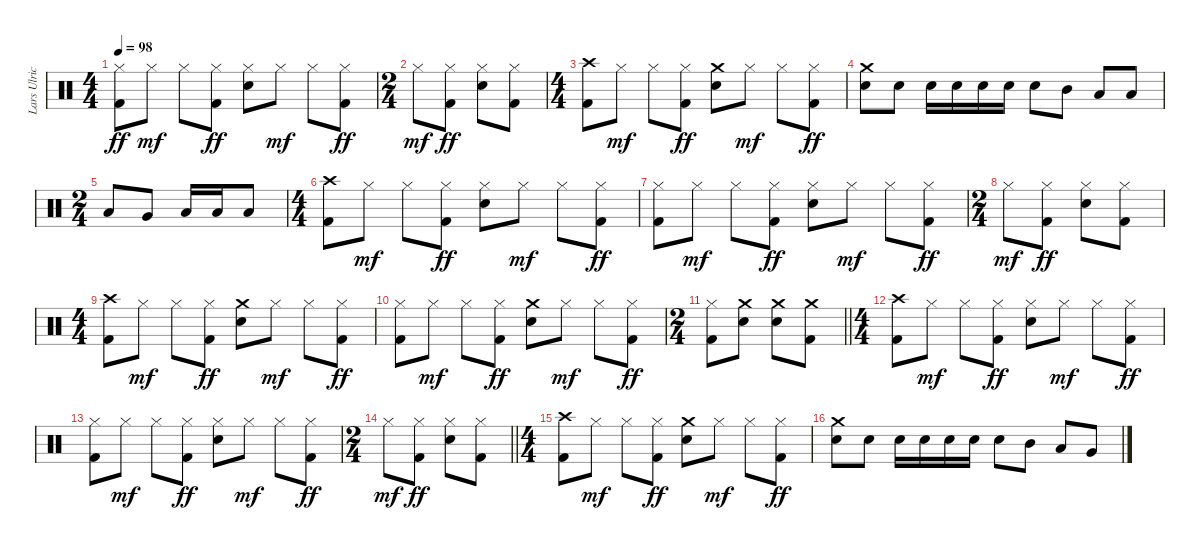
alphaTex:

\track ("Lars Ulrich" "Lars Ulric") {instrument percussion}
\staff {score}
\articulation defaults
\ts (4 4)
\tempo 98
\clef neutral
\ks c
("Hi-Hat (closed)" "Kick (hit) 2").8{dy ff} "Hi-Hat (closed)".8{dy mf} "Hi-Hat (closed)".8 ("Hi-Hat (closed)" "Kick (hit) 2").8{dy ff} ("Hi-Hat (closed)" "Snare (hit) 2").8 "Hi-Hat (closed)".8{dy mf} "Hi-Hat (closed)".8 ("Hi-Hat (closed)" "Kick (hit) 2").8{dy ff} |
\ts (2 4)
"Hi-Hat (closed)".8{dy mf} ("Hi-Hat (closed)" "Kick (hit) 2").8{dy ff} ("Hi-Hat (closed)" "Snare (hit) 2").8 ("Hi-Hat (closed)" "Kick (hit) 2").8 |
\ts (4 4)
("Crash high (hit)" "Kick (hit) 2").8 "Hi-Hat (closed)".8{dy mf} "Hi-Hat (closed)".8 ("Hi-Hat (closed)" "Kick (hit) 2").8{dy ff} ("Crash medium (hit)" "Snare (hit) 2").8 "Hi-Hat (closed)".8{dy mf} "Hi-Hat (closed)".8 ("Hi-Hat (closed)" "Kick (hit) 2").8{dy ff} |
("Crash medium (hit)" "Snare (hit) 2").8 "Snare (hit) 2".8 "Snare (hit) 2".16 "Snare (hit) 2".16 "Snare (hit) 2".16 "Snare (hit) 2".16 "Snare (hit) 2".8 "Mid Tom (hit)".8 "Low Tom (hit)".8 "Low Floor Tom (hit)".8 |
\ts (2 4)
"Low Tom (hit)".8 "Very Low Tom (hit)".8 "Low Floor Tom (hit)".16 "Low Floor Tom (hit)".16 "Low Floor Tom (hit)".8 |
\ts (4 4)
("Crash high (hit)" "Kick (hit) 2").8 "Hi-Hat (closed)".8{dy mf} "Hi-Hat (closed)".8 ("Hi-Hat (closed)" "Kick (hit) 2").8{dy ff} ("Hi-Hat (closed)" "Snare (hit) 2").8 "Hi-Hat (closed)".8{dy mf} "Hi-Hat (closed)".8 ("Hi-Hat (closed)" "Kick (hit) 2").8{dy ff} |
("Hi-Hat (closed)" "Kick (hit) 2").8 "Hi-Hat (closed)".8{dy mf} "Hi-Hat (closed)".8 ("Hi-Hat (closed)" "Kick (hit) 2").8{dy ff} ("Hi-Hat (closed)" "Snare (hit) 2").8 "Hi-Hat (closed)".8{dy mf} "Hi-Hat (closed)".8 ("Hi-Hat (closed)" "Kick (hit) 2").8{dy ff} |
\ts (2 4)
"Hi-Hat (closed)".8{dy mf} ("Hi-Hat (closed)" "Kick (hit) 2").8{dy ff} ("Hi-Hat (closed)" "Snare (hit) 2").8 ("Hi-Hat (closed)" "Kick (hit) 2").8 |
\ts (4 4)
("Crash high (hit)" "Kick (hit) 2").8 "Hi-Hat (closed)".8{dy mf} "Hi-Hat (closed)".8 ("Hi-Hat (closed)" "Kick (hit) 2").8{dy ff} ("Crash medium (hit)" "Snare (hit) 2").8 "Hi-Hat (closed)".8{dy mf} "Hi-Hat (closed)".8 ("Hi-Hat (closed)" "Kick (hit) 2").8{dy ff} |
("Hi-Hat (closed)" "Kick (hit) 2").8 "Hi-Hat (closed)".8{dy mf} "Hi-Hat (closed)".8 ("Hi-Hat (closed)" "Kick (hit) 2").8{dy ff} ("Crash medium (hit)" "Snare (hit) 2").8 "Hi-Hat (closed)".8{dy mf} "Hi-Hat (closed)".8 ("Hi-Hat (closed)" "Kick (hit) 2").8{dy ff} |
\ts (2 4)
\barLineRight lightlight
("Hi-Hat (closed)" "Kick (hit) 2").8 ("Crash medium (hit)" "Snare (hit) 2").8 ("Crash medium (hit)" "Snare (hit) 2").8 ("Crash medium (hit)" "Kick (hit) 2").8 |
\ts (4 4)
("Crash high (hit)" "Kick (hit) 2").8 "Hi-Hat (closed)".8{dy mf} "Hi-Hat (closed)".8 ("Hi-Hat (closed)" "Kick (hit) 2").8{dy ff} ("Hi-Hat (closed)" "Snare (hit) 2").8 "Hi-Hat (closed)".8{dy mf} "Hi-Hat (closed)".8 ("Hi-Hat (closed)" "Kick (hit) 2").8{dy ff} |
("Hi-Hat (closed)" "Kick (hit) 2").8 "Hi-Hat (closed)".8{dy mf} "Hi-Hat (closed)".8 ("Hi-Hat (closed)" "Kick (hit) 2").8{dy ff} ("Hi-Hat (closed)" "Snare (hit) 2").8 "Hi-Hat (closed)".8{dy mf} "Hi-Hat (closed)".8 ("Hi-Hat (closed)" "Kick (hit) 2").8{dy ff} |
\ts (2 4)
\barLineRight lightlight "Hi-Hat (closed)".8{dy mf}
("Hi-Hat (closed)" "Kick (hit) 2").8{dy ff} ("Hi-Hat (closed)" "Snare (hit) 2").8 ("Hi-Hat (closed)" "Kick (hit) 2").8 |
\ts (4 4)
("Crash high (hit)" "Kick (hit) 2").8 "Hi-Hat (closed)".8{dy mf} "Hi-Hat (closed)".8 ("Hi-Hat (closed)" "Kick (hit) 2").8{dy ff} ("Crash medium (hit)" "Snare (hit) 2").8 "Hi-Hat (closed)".8{dy mf} "Hi-Hat (closed)".8 ("Hi-Hat (closed)" "Kick (hit) 2").8{dy ff} |
("Crash medium (hit)" "Snare (hit) 2").8 "Snare (hit) 2".8 "Snare (hit) 2".16 "Snare (hit) 2".16 "Snare (hit) 2".16 "Snare (hit) 2".16 "Snare (hit) 2".8 "Mid Tom (hit)".8 "Low Tom (hit)".8 "Very Low Tom (hit)".8
